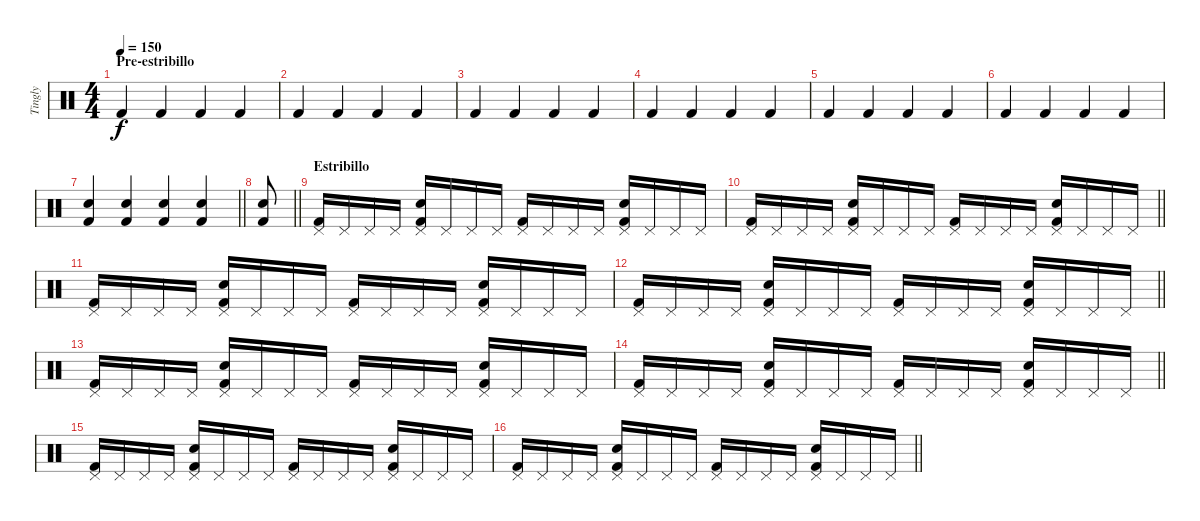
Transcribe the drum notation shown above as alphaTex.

\track ("Tingly" "Tingly") {instrument percussion}
\staff {score}
\articulation defaults
\ts (4 4)
\section ("" "Pre-estribillo")
\tempo 150
\clef neutral
\ks c "Kick (hit) 2".4{dy f} "Kick (hit) 2".4 "Kick (hit) 2".4 "Kick (hit) 2".4
|
"Kick (hit) 2".4 "Kick (hit) 2".4 "Kick (hit) 2".4 "Kick (hit) 2".4 |
"Kick (hit) 2".4 "Kick (hit) 2".4 "Kick (hit) 2".4 "Kick (hit) 2".4 |
"Kick (hit) 2".4 "Kick (hit) 2".4 "Kick (hit) 2".4 "Kick (hit) 2".4 |
"Kick (hit) 2".4 "Kick (hit) 2".4 "Kick (hit) 2".4 "Kick (hit) 2".4 |
"Kick (hit) 2".4 "Kick (hit) 2".4 "Kick (hit) 2".4 "Kick (hit) 2".4 |
\barLineRight lightlight
("Electric Snare (hit)" "Kick (hit) 2").4 ("Electric Snare (hit)" "Kick (hit) 2").4 ("Electric Snare (hit)" "Kick (hit) 2").4 ("Electric Snare (hit)" "Kick (hit) 2").4 |
\barLineRight lightlight
("Electric Snare (hit)" "Kick (hit) 2").8 |
\section ("" "Estribillo")
("Pedal Hi-Hat (hit)" "Kick (hit) 2").16 "Pedal Hi-Hat (hit)".16 "Pedal Hi-Hat (hit)".16 "Pedal Hi-Hat (hit)".16 ("Electric Snare (hit)" "Pedal Hi-Hat (hit)" "Kick (hit) 2").16 "Pedal Hi-Hat (hit)".16 "Pedal Hi-Hat (hit)".16 "Pedal Hi-Hat (hit)".16 ("Pedal Hi-Hat (hit)" "Kick (hit) 2").16 "Pedal Hi-Hat (hit)".16 "Pedal Hi-Hat (hit)".16 "Pedal Hi-Hat (hit)".16 ("Electric Snare (hit)" "Pedal Hi-Hat (hit)" "Kick (hit) 2").16 "Pedal Hi-Hat (hit)".16 "Pedal Hi-Hat (hit)".16 "Pedal Hi-Hat (hit)".16 |
\barLineRight lightlight
("Pedal Hi-Hat (hit)" "Kick (hit) 2").16 "Pedal Hi-Hat (hit)".16 "Pedal Hi-Hat (hit)".16 "Pedal Hi-Hat (hit)".16 ("Electric Snare (hit)" "Pedal Hi-Hat (hit)" "Kick (hit) 2").16 "Pedal Hi-Hat (hit)".16 "Pedal Hi-Hat (hit)".16 "Pedal Hi-Hat (hit)".16 ("Pedal Hi-Hat (hit)" "Kick (hit) 2").16 "Pedal Hi-Hat (hit)".16 "Pedal Hi-Hat (hit)".16 "Pedal Hi-Hat (hit)".16 ("Electric Snare (hit)" "Pedal Hi-Hat (hit)" "Kick (hit) 2").16 "Pedal Hi-Hat (hit)".16 "Pedal Hi-Hat (hit)".16 "Pedal Hi-Hat (hit)".16 |
("Pedal Hi-Hat (hit)" "Kick (hit) 2").16 "Pedal Hi-Hat (hit)".16 "Pedal Hi-Hat (hit)".16 "Pedal Hi-Hat (hit)".16 ("Electric Snare (hit)" "Pedal Hi-Hat (hit)" "Kick (hit) 2").16 "Pedal Hi-Hat (hit)".16 "Pedal Hi-Hat (hit)".16 "Pedal Hi-Hat (hit)".16 ("Pedal Hi-Hat (hit)" "Kick (hit) 2").16 "Pedal Hi-Hat (hit)".16 "Pedal Hi-Hat (hit)".16 "Pedal Hi-Hat (hit)".16 ("Electric Snare (hit)" "Pedal Hi-Hat (hit)" "Kick (hit) 2").16 "Pedal Hi-Hat (hit)".16 "Pedal Hi-Hat (hit)".16 "Pedal Hi-Hat (hit)".16 |
\barLineRight lightlight
("Pedal Hi-Hat (hit)" "Kick (hit) 2").16 "Pedal Hi-Hat (hit)".16 "Pedal Hi-Hat (hit)".16 "Pedal Hi-Hat (hit)".16 ("Electric Snare (hit)" "Pedal Hi-Hat (hit)" "Kick (hit) 2").16 "Pedal Hi-Hat (hit)".16 "Pedal Hi-Hat (hit)".16 "Pedal Hi-Hat (hit)".16 ("Pedal Hi-Hat (hit)" "Kick (hit) 2").16 "Pedal Hi-Hat (hit)".16 "Pedal Hi-Hat (hit)".16 "Pedal Hi-Hat (hit)".16 ("Electric Snare (hit)" "Pedal Hi-Hat (hit)" "Kick (hit) 2").16 "Pedal Hi-Hat (hit)".16 "Pedal Hi-Hat (hit)".16 "Pedal Hi-Hat (hit)".16 |
("Pedal Hi-Hat (hit)" "Kick (hit) 2").16 "Pedal Hi-Hat (hit)".16 "Pedal Hi-Hat (hit)".16 "Pedal Hi-Hat (hit)".16 ("Electric Snare (hit)" "Pedal Hi-Hat (hit)" "Kick (hit) 2").16 "Pedal Hi-Hat (hit)".16 "Pedal Hi-Hat (hit)".16 "Pedal Hi-Hat (hit)".16 ("Pedal Hi-Hat (hit)" "Kick (hit) 2").16 "Pedal Hi-Hat (hit)".16 "Pedal Hi-Hat (hit)".16 "Pedal Hi-Hat (hit)".16 ("Electric Snare (hit)" "Pedal Hi-Hat (hit)" "Kick (hit) 2").16 "Pedal Hi-Hat (hit)".16 "Pedal Hi-Hat (hit)".16 "Pedal Hi-Hat (hit)".16 |
\barLineRight lightlight
("Pedal Hi-Hat (hit)" "Kick (hit) 2").16 "Pedal Hi-Hat (hit)".16 "Pedal Hi-Hat (hit)".16 "Pedal Hi-Hat (hit)".16 ("Electric Snare (hit)" "Pedal Hi-Hat (hit)" "Kick (hit) 2").16 "Pedal Hi-Hat (hit)".16 "Pedal Hi-Hat (hit)".16 "Pedal Hi-Hat (hit)".16 ("Pedal Hi-Hat (hit)" "Kick (hit) 2").16 "Pedal Hi-Hat (hit)".16 "Pedal Hi-Hat (hit)".16 "Pedal Hi-Hat (hit)".16 ("Electric Snare (hit)" "Pedal Hi-Hat (hit)" "Kick (hit) 2").16 "Pedal Hi-Hat (hit)".16 "Pedal Hi-Hat (hit)".16 "Pedal Hi-Hat (hit)".16 |
\section ("" "")
("Pedal Hi-Hat (hit)" "Kick (hit) 2").16 "Pedal Hi-Hat (hit)".16 "Pedal Hi-Hat (hit)".16 "Pedal Hi-Hat (hit)".16 ("Electric Snare (hit)" "Pedal Hi-Hat (hit)" "Kick (hit) 2").16 "Pedal Hi-Hat (hit)".16 "Pedal Hi-Hat (hit)".16 "Pedal Hi-Hat (hit)".16 ("Pedal Hi-Hat (hit)" "Kick (hit) 2").16 "Pedal Hi-Hat (hit)".16 "Pedal Hi-Hat (hit)".16 "Pedal Hi-Hat (hit)".16 ("Electric Snare (hit)" "Pedal Hi-Hat (hit)" "Kick (hit) 2").16 "Pedal Hi-Hat (hit)".16 "Pedal Hi-Hat (hit)".16 "Pedal Hi-Hat (hit)".16 |
\barLineRight lightlight
("Pedal Hi-Hat (hit)" "Kick (hit) 2").16 "Pedal Hi-Hat (hit)".16 "Pedal Hi-Hat (hit)".16 "Pedal Hi-Hat (hit)".16 ("Electric Snare (hit)" "Pedal Hi-Hat (hit)" "Kick (hit) 2").16 "Pedal Hi-Hat (hit)".16 "Pedal Hi-Hat (hit)".16 "Pedal Hi-Hat (hit)".16 ("Pedal Hi-Hat (hit)" "Kick (hit) 2").16 "Pedal Hi-Hat (hit)".16 "Pedal Hi-Hat (hit)".16 "Pedal Hi-Hat (hit)".16 ("Electric Snare (hit)" "Pedal Hi-Hat (hit)" "Kick (hit) 2").16 "Pedal Hi-Hat (hit)".16 "Pedal Hi-Hat (hit)".16 "Pedal Hi-Hat (hit)".16
